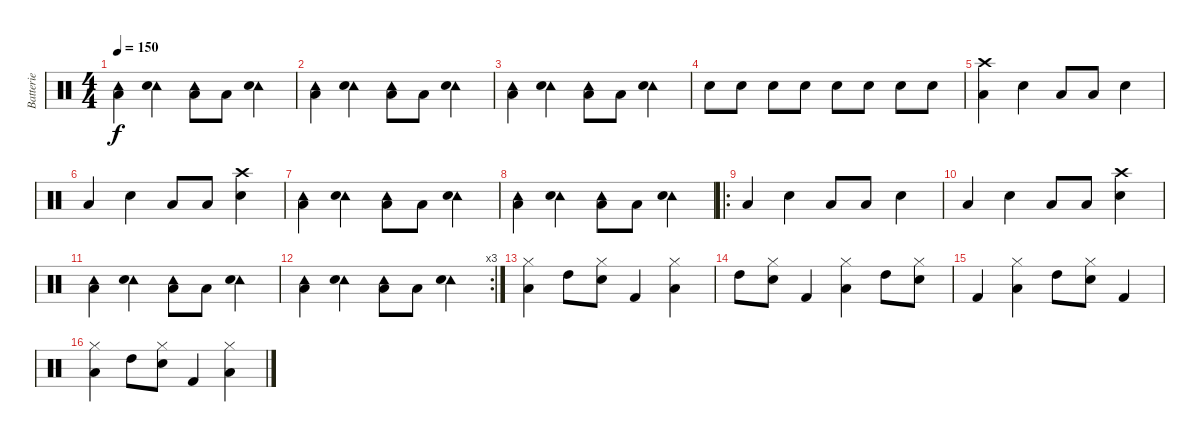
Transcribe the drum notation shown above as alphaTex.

\track ("Batterie" "Batterie") {instrument percussion}
\staff {score}
\articulation defaults
\ts (4 4)
\tempo 150
\clef neutral
\ks c
("Tambourine (hit)" "Low Floor Tom (hit)").4{dy f} ("Tambourine (hit)" "Electric Snare (hit)").4 ("Tambourine (hit)" "Low Floor Tom (hit)").8 "Low Floor Tom (hit)".8 ("Tambourine (hit)" "Electric Snare (hit)").4 |
("Tambourine (hit)" "Low Floor Tom (hit)").4 ("Tambourine (hit)" "Electric Snare (hit)").4 ("Tambourine (hit)" "Low Floor Tom (hit)").8 "Low Floor Tom (hit)".8 ("Tambourine (hit)" "Electric Snare (hit)").4 |
("Tambourine (hit)" "Low Floor Tom (hit)").4 ("Tambourine (hit)" "Electric Snare (hit)").4 ("Tambourine (hit)" "Low Floor Tom (hit)").8 "Low Floor Tom (hit)".8 ("Tambourine (hit)" "Electric Snare (hit)").4 |
"Electric Snare (hit)".8 "Electric Snare (hit)".8 "Electric Snare (hit)".8 "Electric Snare (hit)".8 "Electric Snare (hit)".8 "Electric Snare (hit)".8 "Electric Snare (hit)".8 "Electric Snare (hit)".8 |
("Crash high (hit)" "Low Floor Tom (hit)").4 "Electric Snare (hit)".4 "Low Floor Tom (hit)".8 "Low Floor Tom (hit)".8 "Electric Snare (hit)".4 |
"Low Floor Tom (hit)".4 "Electric Snare (hit)".4 "Low Floor Tom (hit)".8 "Low Floor Tom (hit)".8 ("Crash high (hit)" "Electric Snare (hit)").4 |
("Tambourine (hit)" "Low Floor Tom (hit)").4 ("Tambourine (hit)" "Electric Snare (hit)").4 ("Tambourine (hit)" "Low Floor Tom (hit)").8 "Low Floor Tom (hit)".8 ("Tambourine (hit)" "Electric Snare (hit)").4 |
("Tambourine (hit)" "Low Floor Tom (hit)").4 ("Tambourine (hit)" "Electric Snare (hit)").4 ("Tambourine (hit)" "Low Floor Tom (hit)").8 "Low Floor Tom (hit)".8 ("Tambourine (hit)" "Electric Snare (hit)").4 |
\ro "Low Floor Tom (hit)".4 "Electric Snare (hit)".4 "Low Floor Tom (hit)".8 "Low Floor Tom (hit)".8 "Electric Snare (hit)".4
|
"Low Floor Tom (hit)".4 "Electric Snare (hit)".4 "Low Floor Tom (hit)".8 "Low Floor Tom (hit)".8 ("Crash high (hit)" "Electric Snare (hit)").4 |
("Tambourine (hit)" "Low Floor Tom (hit)").4 ("Tambourine (hit)" "Electric Snare (hit)").4 ("Tambourine (hit)" "Low Floor Tom (hit)").8 "Low Floor Tom (hit)".8 ("Tambourine (hit)" "Electric Snare (hit)").4 |
\rc 3
("Tambourine (hit)" "Low Floor Tom (hit)").4 ("Tambourine (hit)" "Electric Snare (hit)").4 ("Tambourine (hit)" "Low Floor Tom (hit)").8 "Low Floor Tom (hit)".8 ("Tambourine (hit)" "Electric Snare (hit)").4 |
("Hi-Hat (closed)" "Low Floor Tom (hit)").4 "High Tom (hit)".8 ("Hi-Hat (closed)" "Snare (hit) 2").8 "Kick (hit) 2".4 ("Hi-Hat (closed)" "Low Floor Tom (hit)").4 |
"High Tom (hit)".8 ("Hi-Hat (closed)" "Snare (hit) 2").8 "Kick (hit) 2".4 ("Hi-Hat (closed)" "Low Floor Tom (hit)").4 "High Tom (hit)".8 ("Hi-Hat (closed)" "Snare (hit) 2").8 |
"Kick (hit) 2".4 ("Hi-Hat (closed)" "Low Floor Tom (hit)").4 "High Tom (hit)".8 ("Hi-Hat (closed)" "Snare (hit) 2").8 "Kick (hit) 2".4 |
("Hi-Hat (closed)" "Low Floor Tom (hit)").4 "High Tom (hit)".8 ("Hi-Hat (closed)" "Snare (hit) 2").8 "Kick (hit) 2".4 ("Hi-Hat (closed)" "Low Floor Tom (hit)").4
